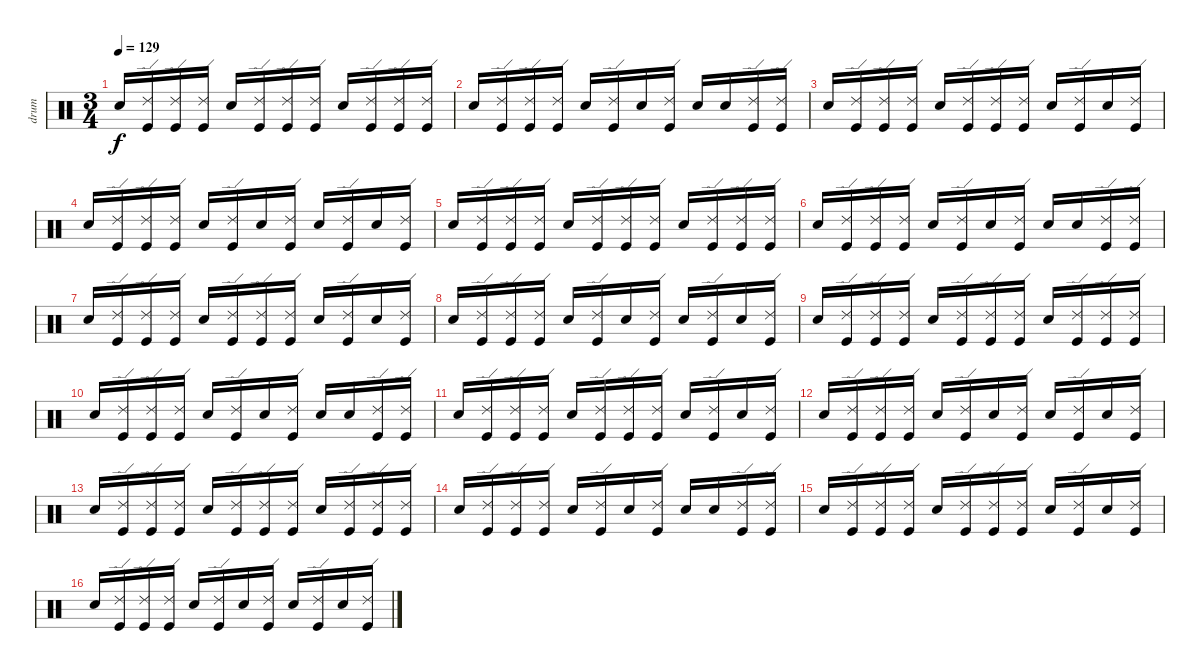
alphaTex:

\track ("drum" "drum") {instrument percussion}
\staff {score}
\articulation defaults
\ts (3 4)
\tempo 129
\clef neutral
\ks c "Electric Snare (hit)".16{dy f volume 11}
("Kick (hit)" "Ride (edge) 2").16 ("Kick (hit)" "Ride (edge) 2").16 ("Kick (hit)" "Ride (edge) 2").16 "Electric Snare (hit)".16 ("Kick (hit)" "Ride (edge) 2").16 ("Kick (hit)" "Ride (edge) 2").16 ("Kick (hit)" "Ride (edge) 2").16 "Electric Snare (hit)".16 ("Kick (hit)" "Ride (edge) 2").16 ("Kick (hit)" "Ride (edge) 2").16 ("Kick (hit)" "Ride (edge) 2").16 |
"Electric Snare (hit)".16 ("Kick (hit)" "Ride (edge) 2").16 ("Kick (hit)" "Ride (edge) 2").16 ("Kick (hit)" "Ride (edge) 2").16 "Electric Snare (hit)".16 ("Kick (hit)" "Ride (edge) 2").16 "Electric Snare (hit)".16 ("Kick (hit)" "Ride (edge) 2").16 "Electric Snare (hit)".16 "Electric Snare (hit)".16 ("Kick (hit)" "Ride (edge) 2").16 ("Kick (hit)" "Ride (edge) 2").16 |
"Electric Snare (hit)".16 ("Kick (hit)" "Ride (edge) 2").16 ("Kick (hit)" "Ride (edge) 2").16 ("Kick (hit)" "Ride (edge) 2").16 "Electric Snare (hit)".16 ("Kick (hit)" "Ride (edge) 2").16 ("Kick (hit)" "Ride (edge) 2").16 ("Kick (hit)" "Ride (edge) 2").16 "Electric Snare (hit)".16 ("Kick (hit)" "Ride (edge) 2").16 "Electric Snare (hit)".16 ("Kick (hit)" "Ride (edge) 2").16 |
"Electric Snare (hit)".16 ("Kick (hit)" "Ride (edge) 2").16 ("Kick (hit)" "Ride (edge) 2").16 ("Kick (hit)" "Ride (edge) 2").16 "Electric Snare (hit)".16 ("Kick (hit)" "Ride (edge) 2").16 "Electric Snare (hit)".16 ("Kick (hit)" "Ride (edge) 2").16 "Electric Snare (hit)".16 ("Kick (hit)" "Ride (edge) 2").16 "Electric Snare (hit)".16 ("Kick (hit)" "Ride (edge) 2").16 |
"Electric Snare (hit)".16 ("Kick (hit)" "Ride (edge) 2").16 ("Kick (hit)" "Ride (edge) 2").16 ("Kick (hit)" "Ride (edge) 2").16 "Electric Snare (hit)".16 ("Kick (hit)" "Ride (edge) 2").16 ("Kick (hit)" "Ride (edge) 2").16 ("Kick (hit)" "Ride (edge) 2").16 "Electric Snare (hit)".16 ("Kick (hit)" "Ride (edge) 2").16 ("Kick (hit)" "Ride (edge) 2").16 ("Kick (hit)" "Ride (edge) 2").16 |
"Electric Snare (hit)".16 ("Kick (hit)" "Ride (edge) 2").16 ("Kick (hit)" "Ride (edge) 2").16 ("Kick (hit)" "Ride (edge) 2").16 "Electric Snare (hit)".16 ("Kick (hit)" "Ride (edge) 2").16 "Electric Snare (hit)".16 ("Kick (hit)" "Ride (edge) 2").16 "Electric Snare (hit)".16 "Electric Snare (hit)".16 ("Kick (hit)" "Ride (edge) 2").16 ("Kick (hit)" "Ride (edge) 2").16 |
"Electric Snare (hit)".16 ("Kick (hit)" "Ride (edge) 2").16 ("Kick (hit)" "Ride (edge) 2").16 ("Kick (hit)" "Ride (edge) 2").16 "Electric Snare (hit)".16 ("Kick (hit)" "Ride (edge) 2").16 ("Kick (hit)" "Ride (edge) 2").16 ("Kick (hit)" "Ride (edge) 2").16 "Electric Snare (hit)".16 ("Kick (hit)" "Ride (edge) 2").16 "Electric Snare (hit)".16 ("Kick (hit)" "Ride (edge) 2").16 |
"Electric Snare (hit)".16 ("Kick (hit)" "Ride (edge) 2").16 ("Kick (hit)" "Ride (edge) 2").16 ("Kick (hit)" "Ride (edge) 2").16 "Electric Snare (hit)".16 ("Kick (hit)" "Ride (edge) 2").16 "Electric Snare (hit)".16 ("Kick (hit)" "Ride (edge) 2").16 "Electric Snare (hit)".16 ("Kick (hit)" "Ride (edge) 2").16 "Electric Snare (hit)".16 ("Kick (hit)" "Ride (edge) 2").16 |
"Electric Snare (hit)".16 ("Kick (hit)" "Ride (edge) 2").16 ("Kick (hit)" "Ride (edge) 2").16 ("Kick (hit)" "Ride (edge) 2").16 "Electric Snare (hit)".16 ("Kick (hit)" "Ride (edge) 2").16 ("Kick (hit)" "Ride (edge) 2").16 ("Kick (hit)" "Ride (edge) 2").16 "Electric Snare (hit)".16 ("Kick (hit)" "Ride (edge) 2").16 ("Kick (hit)" "Ride (edge) 2").16 ("Kick (hit)" "Ride (edge) 2").16 |
"Electric Snare (hit)".16 ("Kick (hit)" "Ride (edge) 2").16 ("Kick (hit)" "Ride (edge) 2").16 ("Kick (hit)" "Ride (edge) 2").16 "Electric Snare (hit)".16 ("Kick (hit)" "Ride (edge) 2").16 "Electric Snare (hit)".16 ("Kick (hit)" "Ride (edge) 2").16 "Electric Snare (hit)".16 "Electric Snare (hit)".16 ("Kick (hit)" "Ride (edge) 2").16 ("Kick (hit)" "Ride (edge) 2").16 |
"Electric Snare (hit)".16 ("Kick (hit)" "Ride (edge) 2").16 ("Kick (hit)" "Ride (edge) 2").16 ("Kick (hit)" "Ride (edge) 2").16 "Electric Snare (hit)".16 ("Kick (hit)" "Ride (edge) 2").16 ("Kick (hit)" "Ride (edge) 2").16 ("Kick (hit)" "Ride (edge) 2").16 "Electric Snare (hit)".16 ("Kick (hit)" "Ride (edge) 2").16 "Electric Snare (hit)".16 ("Kick (hit)" "Ride (edge) 2").16 |
"Electric Snare (hit)".16 ("Kick (hit)" "Ride (edge) 2").16 ("Kick (hit)" "Ride (edge) 2").16 ("Kick (hit)" "Ride (edge) 2").16 "Electric Snare (hit)".16 ("Kick (hit)" "Ride (edge) 2").16 "Electric Snare (hit)".16 ("Kick (hit)" "Ride (edge) 2").16 "Electric Snare (hit)".16 ("Kick (hit)" "Ride (edge) 2").16 "Electric Snare (hit)".16 ("Kick (hit)" "Ride (edge) 2").16 |
"Electric Snare (hit)".16 ("Kick (hit)" "Ride (edge) 2").16 ("Kick (hit)" "Ride (edge) 2").16 ("Kick (hit)" "Ride (edge) 2").16 "Electric Snare (hit)".16 ("Kick (hit)" "Ride (edge) 2").16 ("Kick (hit)" "Ride (edge) 2").16 ("Kick (hit)" "Ride (edge) 2").16 "Electric Snare (hit)".16 ("Kick (hit)" "Ride (edge) 2").16 ("Kick (hit)" "Ride (edge) 2").16 ("Kick (hit)" "Ride (edge) 2").16 |
"Electric Snare (hit)".16 ("Kick (hit)" "Ride (edge) 2").16 ("Kick (hit)" "Ride (edge) 2").16 ("Kick (hit)" "Ride (edge) 2").16 "Electric Snare (hit)".16 ("Kick (hit)" "Ride (edge) 2").16 "Electric Snare (hit)".16 ("Kick (hit)" "Ride (edge) 2").16 "Electric Snare (hit)".16 "Electric Snare (hit)".16 ("Kick (hit)" "Ride (edge) 2").16 ("Kick (hit)" "Ride (edge) 2").16 |
"Electric Snare (hit)".16 ("Kick (hit)" "Ride (edge) 2").16 ("Kick (hit)" "Ride (edge) 2").16 ("Kick (hit)" "Ride (edge) 2").16 "Electric Snare (hit)".16 ("Kick (hit)" "Ride (edge) 2").16 ("Kick (hit)" "Ride (edge) 2").16 ("Kick (hit)" "Ride (edge) 2").16 "Electric Snare (hit)".16 ("Kick (hit)" "Ride (edge) 2").16 "Electric Snare (hit)".16 ("Kick (hit)" "Ride (edge) 2").16 |
"Electric Snare (hit)".16 ("Kick (hit)" "Ride (edge) 2").16 ("Kick (hit)" "Ride (edge) 2").16 ("Kick (hit)" "Ride (edge) 2").16 "Electric Snare (hit)".16 ("Kick (hit)" "Ride (edge) 2").16 "Electric Snare (hit)".16 ("Kick (hit)" "Ride (edge) 2").16 "Electric Snare (hit)".16 ("Kick (hit)" "Ride (edge) 2").16 "Electric Snare (hit)".16 ("Kick (hit)" "Ride (edge) 2").16
